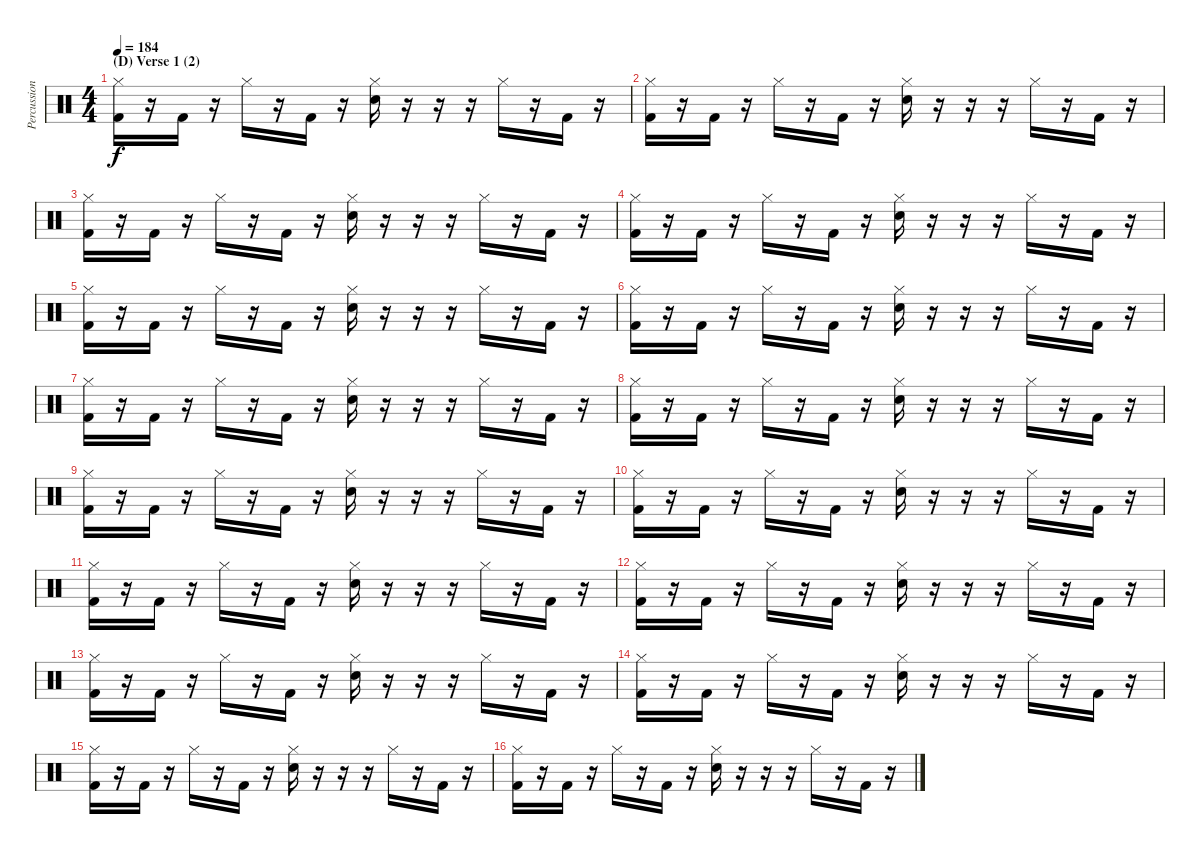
\track ("Percussion" "Percussion") {instrument percussion}
\staff {score}
\articulation defaults
\ts (4 4)
\section ("" "(D) Verse 1 (2)")
\tempo 184
\clef neutral
\ks c
("Hi-Hat (closed)" "Kick (hit) 2").16{dy f} r.16 "Kick (hit) 2".16 r.16 "Hi-Hat (closed)".16 r.16 "Kick (hit) 2".16 r.16 ("Hi-Hat (closed)" "Electric Snare (hit)").16 r.16 r.16 r.16 "Hi-Hat (closed)".16 r.16 "Kick (hit) 2".16 r.16 |
("Hi-Hat (closed)" "Kick (hit) 2").16 r.16 "Kick (hit) 2".16 r.16 "Hi-Hat (closed)".16 r.16 "Kick (hit) 2".16 r.16 ("Hi-Hat (closed)" "Electric Snare (hit)").16 r.16 r.16 r.16 "Hi-Hat (closed)".16 r.16 "Kick (hit) 2".16 r.16 |
("Hi-Hat (closed)" "Kick (hit) 2").16 r.16 "Kick (hit) 2".16 r.16 "Hi-Hat (closed)".16 r.16 "Kick (hit) 2".16 r.16 ("Hi-Hat (closed)" "Electric Snare (hit)").16 r.16 r.16 r.16 "Hi-Hat (closed)".16 r.16 "Kick (hit) 2".16 r.16 |
("Hi-Hat (closed)" "Kick (hit) 2").16 r.16 "Kick (hit) 2".16 r.16 "Hi-Hat (closed)".16 r.16 "Kick (hit) 2".16 r.16 ("Hi-Hat (closed)" "Electric Snare (hit)").16 r.16 r.16 r.16 "Hi-Hat (closed)".16 r.16 "Kick (hit) 2".16 r.16 |
("Hi-Hat (closed)" "Kick (hit) 2").16 r.16 "Kick (hit) 2".16 r.16 "Hi-Hat (closed)".16 r.16 "Kick (hit) 2".16 r.16 ("Hi-Hat (closed)" "Electric Snare (hit)").16 r.16 r.16 r.16 "Hi-Hat (closed)".16 r.16 "Kick (hit) 2".16 r.16 |
("Hi-Hat (closed)" "Kick (hit) 2").16 r.16 "Kick (hit) 2".16 r.16 "Hi-Hat (closed)".16 r.16 "Kick (hit) 2".16 r.16 ("Hi-Hat (closed)" "Electric Snare (hit)").16 r.16 r.16 r.16 "Hi-Hat (closed)".16 r.16 "Kick (hit) 2".16 r.16 |
("Hi-Hat (closed)" "Kick (hit) 2").16 r.16 "Kick (hit) 2".16 r.16 "Hi-Hat (closed)".16 r.16 "Kick (hit) 2".16 r.16 ("Hi-Hat (closed)" "Electric Snare (hit)").16 r.16 r.16 r.16 "Hi-Hat (closed)".16 r.16 "Kick (hit) 2".16 r.16 |
("Hi-Hat (closed)" "Kick (hit) 2").16 r.16 "Kick (hit) 2".16 r.16 "Hi-Hat (closed)".16 r.16 "Kick (hit) 2".16 r.16 ("Hi-Hat (closed)" "Electric Snare (hit)").16 r.16 r.16 r.16 "Hi-Hat (closed)".16 r.16 "Kick (hit) 2".16 r.16 |
("Hi-Hat (closed)" "Kick (hit) 2").16 r.16 "Kick (hit) 2".16 r.16 "Hi-Hat (closed)".16 r.16 "Kick (hit) 2".16 r.16 ("Hi-Hat (closed)" "Electric Snare (hit)").16 r.16 r.16 r.16 "Hi-Hat (closed)".16 r.16 "Kick (hit) 2".16 r.16 |
("Hi-Hat (closed)" "Kick (hit) 2").16 r.16 "Kick (hit) 2".16 r.16 "Hi-Hat (closed)".16 r.16 "Kick (hit) 2".16 r.16 ("Hi-Hat (closed)" "Electric Snare (hit)").16 r.16 r.16 r.16 "Hi-Hat (closed)".16 r.16 "Kick (hit) 2".16 r.16 |
("Hi-Hat (closed)" "Kick (hit) 2").16 r.16 "Kick (hit) 2".16 r.16 "Hi-Hat (closed)".16 r.16 "Kick (hit) 2".16 r.16 ("Hi-Hat (closed)" "Electric Snare (hit)").16 r.16 r.16 r.16 "Hi-Hat (closed)".16 r.16 "Kick (hit) 2".16 r.16 |
("Hi-Hat (closed)" "Kick (hit) 2").16 r.16 "Kick (hit) 2".16 r.16 "Hi-Hat (closed)".16 r.16 "Kick (hit) 2".16 r.16 ("Hi-Hat (closed)" "Electric Snare (hit)").16 r.16 r.16 r.16 "Hi-Hat (closed)".16 r.16 "Kick (hit) 2".16 r.16 |
("Hi-Hat (closed)" "Kick (hit) 2").16 r.16 "Kick (hit) 2".16 r.16 "Hi-Hat (closed)".16 r.16 "Kick (hit) 2".16 r.16 ("Hi-Hat (closed)" "Electric Snare (hit)").16 r.16 r.16 r.16 "Hi-Hat (closed)".16 r.16 "Kick (hit) 2".16 r.16 |
("Hi-Hat (closed)" "Kick (hit) 2").16 r.16 "Kick (hit) 2".16 r.16 "Hi-Hat (closed)".16 r.16 "Kick (hit) 2".16 r.16 ("Hi-Hat (closed)" "Electric Snare (hit)").16 r.16 r.16 r.16 "Hi-Hat (closed)".16 r.16 "Kick (hit) 2".16 r.16 |
("Hi-Hat (closed)" "Kick (hit) 2").16 r.16 "Kick (hit) 2".16 r.16 "Hi-Hat (closed)".16 r.16 "Kick (hit) 2".16 r.16 ("Hi-Hat (closed)" "Electric Snare (hit)").16 r.16 r.16 r.16 "Hi-Hat (closed)".16 r.16 "Kick (hit) 2".16 r.16 |
("Hi-Hat (closed)" "Kick (hit) 2").16 r.16 "Kick (hit) 2".16 r.16 "Hi-Hat (closed)".16 r.16 "Kick (hit) 2".16 r.16 ("Hi-Hat (closed)" "Electric Snare (hit)").16 r.16 r.16 r.16 "Hi-Hat (closed)".16 r.16 "Kick (hit) 2".16 r.16
